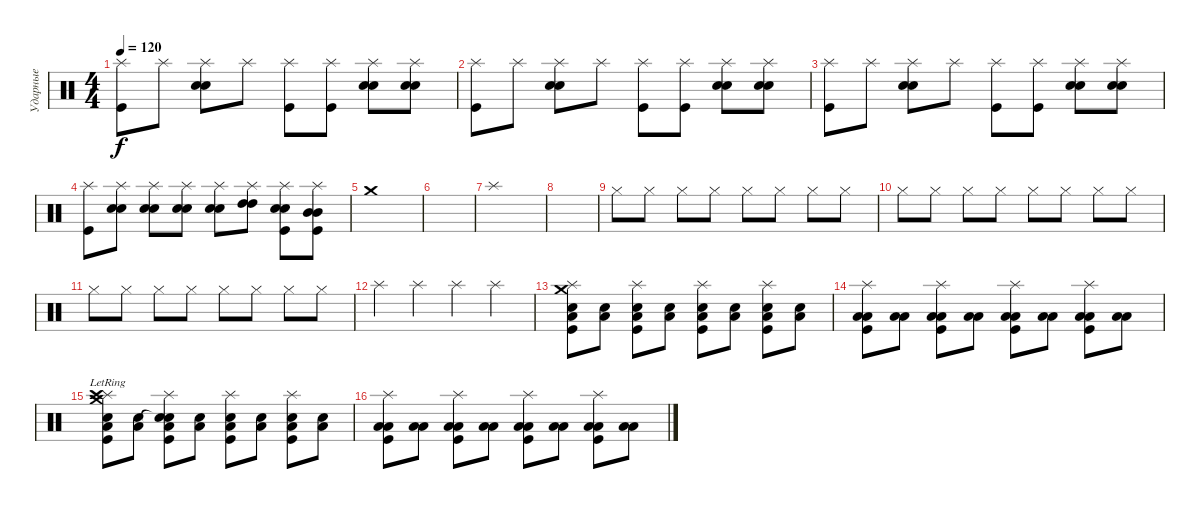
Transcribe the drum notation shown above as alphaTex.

\track ("Ударные" "Ударные") {instrument percussion}
\staff {score}
\articulation defaults
\ts (4 4)
\tempo 120
\clef neutral
\ks c
("Splash (hit)" "Kick (hit)").8{dy f} "Splash (hit)".8 ("Splash (hit)" "Snare (hit) 2" "Snare (hit) 2").8 "Splash (hit)".8 ("Splash (hit)" "Kick (hit)").8 ("Splash (hit)" "Kick (hit)").8 ("Splash (hit)" "Snare (hit) 2" "Snare (hit) 2").8 ("Splash (hit)" "Snare (hit) 2" "Snare (hit) 2").8 |
("Splash (hit)" "Kick (hit)").8 "Splash (hit)".8 ("Splash (hit)" "Snare (hit) 2" "Snare (hit) 2").8 "Splash (hit)".8 ("Splash (hit)" "Kick (hit)").8 ("Splash (hit)" "Kick (hit)").8 ("Splash (hit)" "Snare (hit) 2" "Snare (hit) 2").8 ("Splash (hit)" "Snare (hit) 2" "Snare (hit) 2").8 |
("Splash (hit)" "Kick (hit)").8 "Splash (hit)".8 ("Splash (hit)" "Snare (hit) 2" "Snare (hit) 2").8 "Splash (hit)".8 ("Splash (hit)" "Kick (hit)").8 ("Splash (hit)" "Kick (hit)").8 ("Splash (hit)" "Snare (hit) 2" "Snare (hit) 2").8 ("Splash (hit)" "Snare (hit) 2" "Snare (hit) 2").8 |
("Splash (hit)" "Kick (hit)").8 ("Splash (hit)" "Electric Snare (hit)" "Electric Snare (hit)").8 ("Splash (hit)" "Snare (hit) 2" "Snare (hit) 2").8 ("Splash (hit)" "Snare (hit) 2" "Snare (hit) 2").8 ("Splash (hit)" "Electric Snare (hit)" "Electric Snare (hit)").8 ("Splash (hit)" "High Tom (hit)" "High Tom (hit)").8 ("Splash (hit)" "Snare (hit) 2" "Snare (hit) 2" "Kick (hit)").8 ("Splash (hit)" "Mid Tom (hit)" "Mid Tom (hit)" "Kick (hit)").8 |
"Crash medium (hit)".1 |
|
"Splash (hit)".1 |
|
"Hi-Hat (closed)".8 "Hi-Hat (closed)".8 "Hi-Hat (closed)".8 "Hi-Hat (closed)".8 "Hi-Hat (closed)".8 "Hi-Hat (closed)".8 "Hi-Hat (closed)".8 "Hi-Hat (closed)".8 |
"Hi-Hat (closed)".8 "Hi-Hat (closed)".8 "Hi-Hat (closed)".8 "Hi-Hat (closed)".8 "Hi-Hat (closed)".8 "Hi-Hat (closed)".8 "Hi-Hat (closed)".8 "Hi-Hat (closed)".8 |
"Hi-Hat (closed)".8 "Hi-Hat (closed)".8 "Hi-Hat (closed)".8 "Hi-Hat (closed)".8 "Hi-Hat (closed)".8 "Hi-Hat (closed)".8 "Hi-Hat (closed)".8 "Hi-Hat (closed)".8 |
"Splash (hit)".4 "Splash (hit)".4 "Splash (hit)".4 "Splash (hit)".4 |
("Splash (hit)" "Crash medium (hit)" "Electric Snare (hit)" "Low Floor Tom (hit)" "Kick (hit)").8{volume 8} ("Electric Snare (hit)" "Low Floor Tom (hit)").8 ("Splash (hit)" "Electric Snare (hit)" "Low Floor Tom (hit)" "Kick (hit)").8{volume 9} ("Electric Snare (hit)" "Low Floor Tom (hit)").8 ("Splash (hit)" "Electric Snare (hit)" "Low Floor Tom (hit)" "Kick (hit)").8{volume 10} ("Electric Snare (hit)" "Low Floor Tom (hit)").8 ("Splash (hit)" "Electric Snare (hit)" "Low Floor Tom (hit)" "Kick (hit)").8{volume 11} ("Electric Snare (hit)" "Low Floor Tom (hit)").8 |
("Splash (hit)" "Low Floor Tom (hit)" "Low Floor Tom (hit)" "Kick (hit)").8{volume 12} ("Low Floor Tom (hit)" "Low Floor Tom (hit)").8 ("Splash (hit)" "Low Floor Tom (hit)" "Low Floor Tom (hit)" "Kick (hit)").8{volume 14} ("Low Floor Tom (hit)" "Low Floor Tom (hit)").8 ("Splash (hit)" "Low Floor Tom (hit)" "Low Floor Tom (hit)" "Kick (hit)").8{volume 16} ("Low Floor Tom (hit)" "Low Floor Tom (hit)").8 ("Splash (hit)" "Low Floor Tom (hit)" "Low Floor Tom (hit)" "Kick (hit)").8 ("Low Floor Tom (hit)" "Low Floor Tom (hit)").8 |
("Splash (hit)" "Crash high (hit)"{lr} "Electric Snare (hit)" "Low Floor Tom (hit)" "Crash medium (hit)" "Kick (hit)").8 ("Electric Snare (hit)" "Low Floor Tom (hit)").8{volume 8} ("Splash (hit)" "Snare (hit)"{t} "Electric Snare (hit)" "Low Floor Tom (hit)" "Kick (hit)").8{volume 9} ("Electric Snare (hit)" "Low Floor Tom (hit)").8 ("Splash (hit)" "Electric Snare (hit)" "Low Floor Tom (hit)" "Kick (hit)").8{volume 10} ("Electric Snare (hit)" "Low Floor Tom (hit)").8 ("Splash (hit)" "Electric Snare (hit)" "Low Floor Tom (hit)" "Kick (hit)").8{volume 11} ("Electric Snare (hit)" "Low Floor Tom (hit)").8 |
("Splash (hit)" "Low Floor Tom (hit)" "Low Floor Tom (hit)" "Kick (hit)").8{volume 13} ("Low Floor Tom (hit)" "Low Floor Tom (hit)").8 ("Splash (hit)" "Low Floor Tom (hit)" "Low Floor Tom (hit)" "Kick (hit)").8{volume 14} ("Low Floor Tom (hit)" "Low Floor Tom (hit)").8 ("Splash (hit)" "Low Floor Tom (hit)" "Low Floor Tom (hit)" "Kick (hit)").8{volume 16} ("Low Floor Tom (hit)" "Low Floor Tom (hit)").8 ("Splash (hit)" "Low Floor Tom (hit)" "Low Floor Tom (hit)" "Kick (hit)").8 ("Low Floor Tom (hit)" "Low Floor Tom (hit)").8
